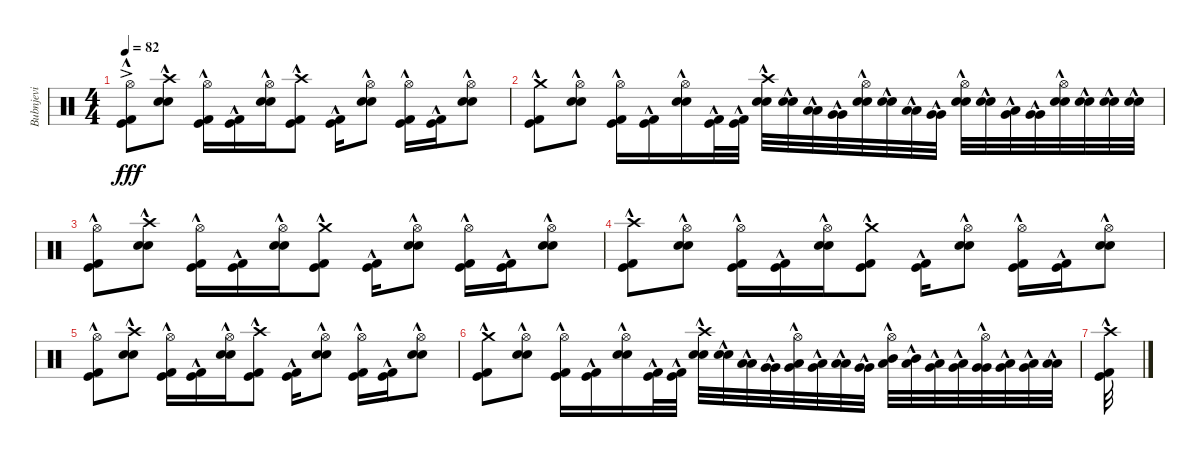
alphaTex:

\track ("Bubnjevi" "Bubnjevi") {instrument percussion}
\staff {score}
\articulation defaults
\ts (4 4)
\tempo 82
\clef neutral
\ks c
("Hi-Hat (open)"{ac} "Kick (hit) 2"{hac} "Kick (hit)"{hac}).8{dy fff} ("Crash high (hit)" "Snare (hit) 2"{hac} "Electric Snare (hit)"{hac}).8 ("Hi-Hat (open)"{hac} "Kick (hit) 2"{hac} "Kick (hit)"{hac}).16 ("Kick (hit) 2"{hac} "Kick (hit)"{hac}).16 ("Hi-Hat (open)"{hac} "Snare (hit) 2"{hac} "Electric Snare (hit)"{hac}).16 ("Crash high (hit)" "Kick (hit) 2"{hac} "Kick (hit)"{hac}).8 ("Kick (hit) 2"{hac} "Kick (hit)"{hac}).16 ("Hi-Hat (open)"{hac} "Snare (hit) 2"{hac} "Electric Snare (hit)"{hac}).8 ("Hi-Hat (open)"{hac} "Kick (hit) 2"{hac} "Kick (hit)"{hac}).16 ("Kick (hit) 2"{hac} "Kick (hit)"{hac}).16 ("Hi-Hat (open)"{hac} "Snare (hit) 2"{hac} "Electric Snare (hit)"{hac}).8 |
("Crash medium (hit)" "Kick (hit) 2"{hac} "Kick (hit)"{hac}).8 ("Hi-Hat (open)"{hac} "Snare (hit) 2"{hac} "Electric Snare (hit)"{hac}).8 ("Hi-Hat (open)"{hac} "Kick (hit) 2"{hac} "Kick (hit)"{hac}).16 ("Kick (hit) 2"{hac} "Kick (hit)"{hac}).16 ("Hi-Hat (open)"{hac} "Snare (hit) 2"{hac} "Electric Snare (hit)"{hac}).16 ("Kick (hit) 2"{hac} "Kick (hit)"{hac}).32 ("Kick (hit) 2"{hac} "Kick (hit)"{hac}).32 ("Crash high (hit)" "Snare (hit) 2"{hac} "Electric Snare (hit)"{hac}).32 ("Electric Snare (hit)"{hac} "Electric Snare (hit)"{hac}).32 ("Low Tom (hit)"{hac} "Low Tom (hit)"{hac}).32 ("Very Low Tom (hit)"{hac} "Very Low Tom (hit)"{hac}).32 ("Hi-Hat (open)"{hac} "Snare (hit) 2"{hac} "Electric Snare (hit)"{hac}).32 ("Snare (hit) 2"{hac} "Electric Snare (hit)"{hac}).32 ("Low Tom (hit)"{hac} "Low Tom (hit)"{hac}).32 ("Very Low Tom (hit)"{hac} "Very Low Tom (hit)"{hac}).32 ("Hi-Hat (open)"{hac} "Snare (hit) 2"{hac} "Electric Snare (hit)"{hac}).32 ("Snare (hit) 2"{hac} "Electric Snare (hit)"{hac}).32 ("Very Low Tom (hit)"{hac} "Low Tom (hit)"{hac}).32 ("Very Low Tom (hit)"{hac} "Very Low Tom (hit)"{hac}).32 ("Hi-Hat (open)"{hac} "Snare (hit) 2"{hac} "Electric Snare (hit)"{hac}).32 ("Snare (hit) 2"{hac} "Electric Snare (hit)"{hac}).32 ("Snare (hit) 2"{hac} "Electric Snare (hit)"{hac}).32 ("Snare (hit) 2"{hac} "Electric Snare (hit)"{hac}).32 |
("Hi-Hat (open)"{hac} "Kick (hit) 2"{hac} "Kick (hit)"{hac}).8 ("Crash high (hit)" "Snare (hit) 2"{hac} "Electric Snare (hit)"{hac}).8 ("Hi-Hat (open)"{hac} "Kick (hit) 2"{hac} "Kick (hit)"{hac}).16 ("Kick (hit) 2"{hac} "Kick (hit)"{hac}).16 ("Hi-Hat (open)"{hac} "Snare (hit) 2"{hac} "Electric Snare (hit)"{hac}).16 ("Crash medium (hit)" "Kick (hit) 2"{hac} "Kick (hit)"{hac}).8 ("Kick (hit) 2"{hac} "Kick (hit)"{hac}).16 ("Hi-Hat (open)"{hac} "Snare (hit) 2"{hac} "Electric Snare (hit)"{hac}).8 ("Hi-Hat (open)"{hac} "Kick (hit) 2"{hac} "Kick (hit)"{hac}).16 ("Kick (hit) 2"{hac} "Kick (hit)"{hac}).16 ("Hi-Hat (open)"{hac} "Snare (hit) 2"{hac} "Electric Snare (hit)"{hac}).8 |
("Crash high (hit)" "Kick (hit) 2"{hac} "Kick (hit)"{hac}).8 ("Hi-Hat (open)"{hac} "Snare (hit) 2"{hac} "Electric Snare (hit)"{hac}).8 ("Hi-Hat (open)"{hac} "Kick (hit) 2"{hac} "Kick (hit)"{hac}).16 ("Kick (hit) 2"{hac} "Kick (hit)"{hac}).16 ("Hi-Hat (open)"{hac} "Snare (hit) 2"{hac} "Electric Snare (hit)"{hac}).16 ("Crash medium (hit)" "Kick (hit) 2"{hac} "Kick (hit)"{hac}).8 ("Kick (hit) 2"{hac} "Kick (hit)"{hac}).16 ("Hi-Hat (open)"{hac} "Snare (hit) 2"{hac} "Electric Snare (hit)"{hac}).8 ("Hi-Hat (open)"{hac} "Kick (hit) 2"{hac} "Kick (hit)"{hac}).16 ("Kick (hit) 2"{hac} "Kick (hit)"{hac}).16 ("Hi-Hat (open)"{hac} "Snare (hit) 2"{hac} "Electric Snare (hit)"{hac}).8 |
("Hi-Hat (open)"{hac} "Kick (hit) 2"{hac} "Kick (hit)"{hac}).8 ("Crash high (hit)" "Snare (hit) 2"{hac} "Electric Snare (hit)"{hac}).8 ("Hi-Hat (open)"{hac} "Kick (hit) 2"{hac} "Kick (hit)"{hac}).16 ("Kick (hit) 2"{hac} "Kick (hit)"{hac}).16 ("Hi-Hat (open)"{hac} "Snare (hit) 2"{hac} "Electric Snare (hit)"{hac}).16 ("Crash high (hit)" "Kick (hit) 2"{hac} "Kick (hit)"{hac}).8 ("Kick (hit) 2"{hac} "Kick (hit)"{hac}).16 ("Hi-Hat (open)"{hac} "Snare (hit) 2"{hac} "Electric Snare (hit)"{hac}).8 ("Hi-Hat (open)"{hac} "Kick (hit) 2"{hac} "Kick (hit)"{hac}).16 ("Kick (hit) 2"{hac} "Kick (hit)"{hac}).16 ("Hi-Hat (open)"{hac} "Snare (hit) 2"{hac} "Electric Snare (hit)"{hac}).8 |
("Crash medium (hit)" "Kick (hit) 2"{hac} "Kick (hit)"{hac}).8 ("Hi-Hat (open)"{hac} "Snare (hit) 2"{hac} "Electric Snare (hit)"{hac}).8 ("Hi-Hat (open)"{hac} "Kick (hit) 2"{hac} "Kick (hit)"{hac}).16 ("Kick (hit) 2"{hac} "Kick (hit)"{hac}).16 ("Hi-Hat (open)"{hac} "Snare (hit) 2"{hac} "Electric Snare (hit)"{hac}).16 ("Kick (hit) 2"{hac} "Kick (hit)"{hac}).32 ("Kick (hit) 2"{hac} "Kick (hit)"{hac}).32 ("Crash high (hit)" "Snare (hit) 2"{hac} "Electric Snare (hit)"{hac}).32 ("Electric Snare (hit)"{hac} "Electric Snare (hit)"{hac}).32 ("Low Tom (hit)"{hac} "Low Tom (hit)"{hac}).32 ("Very Low Tom (hit)"{hac} "Very Low Tom (hit)"{hac}).32 ("Hi-Hat (open)"{hac} "Low Floor Tom (hit)"{hac} "Very Low Tom (hit)"{hac}).32 ("Low Floor Tom (hit)"{hac} "Very Low Tom (hit)"{hac}).32 ("Low Tom (hit)"{hac} "Low Tom (hit)"{hac}).32 ("Very Low Tom (hit)"{hac} "Very Low Tom (hit)"{hac}).32 ("Hi-Hat (open)"{hac} "Low Tom (hit)"{hac} "Mid Tom (hit)"{hac}).32 ("Low Tom (hit)"{hac} "Mid Tom (hit)"{hac}).32 ("Low Tom (hit)"{hac} "Very Low Tom (hit)"{hac}).32 ("Low Tom (hit)"{hac} "Very Low Tom (hit)"{hac}).32 ("Hi-Hat (open)"{hac} "Very Low Tom (hit)"{hac} "Very Low Tom (hit)"{hac}).32 ("Very Low Tom (hit)"{hac} "Low Floor Tom (hit)"{hac}).32 ("Very Low Tom (hit)"{hac} "Low Floor Tom (hit)"{hac}).32 ("Low Floor Tom (hit)"{hac} "Low Floor Tom (hit)"{hac}).32 |
("Crash high (hit)"{hac} "Kick (hit) 2"{hac} "Kick (hit)"{hac}).32
